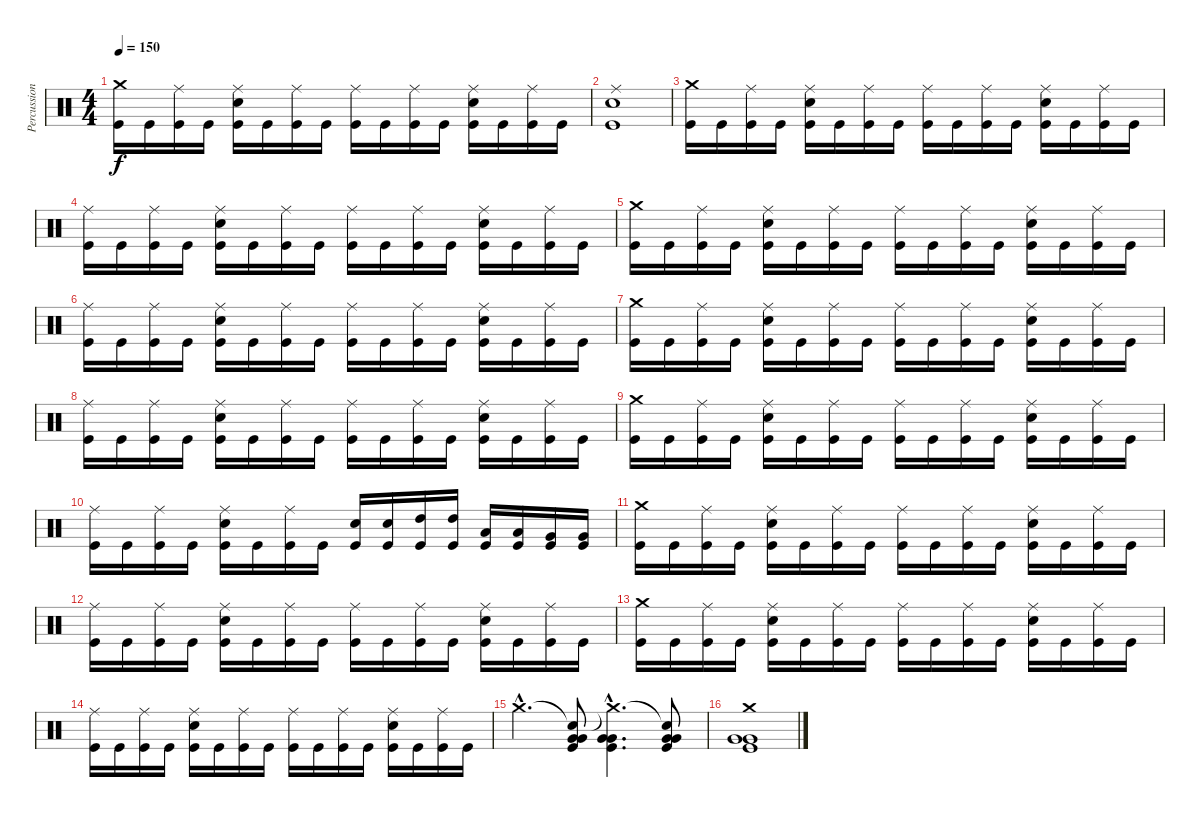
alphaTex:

\track ("Percussioni" "Percussion") {instrument percussion}
\staff {score}
\articulation defaults
\ts (4 4)
\tempo 150
\clef neutral
\ks c
("Crash medium (hit)" "Kick (hit)").16{dy f} "Kick (hit)".16 ("Ride (middle)" "Kick (hit)").16 "Kick (hit)".16 ("Ride (middle)" "Electric Snare (hit)" "Kick (hit)").16 "Kick (hit)".16 ("Ride (middle)" "Kick (hit)").16 "Kick (hit)".16 ("Ride (middle)" "Kick (hit)").16 "Kick (hit)".16 ("Ride (middle)" "Kick (hit)").16 "Kick (hit)".16 ("Ride (middle)" "Electric Snare (hit)" "Kick (hit)").16 "Kick (hit)".16 ("Ride (middle)" "Kick (hit)").16 "Kick (hit)".16 |
("Ride (middle)" "Electric Snare (hit)" "Kick (hit)").1 |
("Crash medium (hit)" "Kick (hit)").16 "Kick (hit)".16 ("Ride (middle)" "Kick (hit)").16 "Kick (hit)".16 ("Ride (middle)" "Electric Snare (hit)" "Kick (hit)").16 "Kick (hit)".16 ("Ride (middle)" "Kick (hit)").16 "Kick (hit)".16 ("Ride (middle)" "Kick (hit)").16 "Kick (hit)".16 ("Ride (middle)" "Kick (hit)").16 "Kick (hit)".16 ("Ride (middle)" "Electric Snare (hit)" "Kick (hit)").16 "Kick (hit)".16 ("Ride (middle)" "Kick (hit)").16 "Kick (hit)".16 |
("Ride (middle)" "Kick (hit)").16 "Kick (hit)".16 ("Ride (middle)" "Kick (hit)").16 "Kick (hit)".16 ("Ride (middle)" "Electric Snare (hit)" "Kick (hit)").16 "Kick (hit)".16 ("Ride (middle)" "Kick (hit)").16 "Kick (hit)".16 ("Ride (middle)" "Kick (hit)").16 "Kick (hit)".16 ("Ride (middle)" "Kick (hit)").16 "Kick (hit)".16 ("Ride (middle)" "Electric Snare (hit)" "Kick (hit)").16 "Kick (hit)".16 ("Ride (middle)" "Kick (hit)").16 "Kick (hit)".16 |
("Crash medium (hit)" "Kick (hit)").16 "Kick (hit)".16 ("Ride (middle)" "Kick (hit)").16 "Kick (hit)".16 ("Ride (middle)" "Electric Snare (hit)" "Kick (hit)").16 "Kick (hit)".16 ("Ride (middle)" "Kick (hit)").16 "Kick (hit)".16 ("Ride (middle)" "Kick (hit)").16 "Kick (hit)".16 ("Ride (middle)" "Kick (hit)").16 "Kick (hit)".16 ("Ride (middle)" "Electric Snare (hit)" "Kick (hit)").16 "Kick (hit)".16 ("Ride (middle)" "Kick (hit)").16 "Kick (hit)".16 |
("Ride (middle)" "Kick (hit)").16 "Kick (hit)".16 ("Ride (middle)" "Kick (hit)").16 "Kick (hit)".16 ("Ride (middle)" "Electric Snare (hit)" "Kick (hit)").16 "Kick (hit)".16 ("Ride (middle)" "Kick (hit)").16 "Kick (hit)".16 ("Ride (middle)" "Kick (hit)").16 "Kick (hit)".16 ("Ride (middle)" "Kick (hit)").16 "Kick (hit)".16 ("Ride (middle)" "Electric Snare (hit)" "Kick (hit)").16 "Kick (hit)".16 ("Ride (middle)" "Kick (hit)").16 "Kick (hit)".16 |
("Crash medium (hit)" "Kick (hit)").16 "Kick (hit)".16 ("Ride (middle)" "Kick (hit)").16 "Kick (hit)".16 ("Ride (middle)" "Electric Snare (hit)" "Kick (hit)").16 "Kick (hit)".16 ("Ride (middle)" "Kick (hit)").16 "Kick (hit)".16 ("Ride (middle)" "Kick (hit)").16 "Kick (hit)".16 ("Ride (middle)" "Kick (hit)").16 "Kick (hit)".16 ("Ride (middle)" "Electric Snare (hit)" "Kick (hit)").16 "Kick (hit)".16 ("Ride (middle)" "Kick (hit)").16 "Kick (hit)".16 |
("Ride (middle)" "Kick (hit)").16 "Kick (hit)".16 ("Ride (middle)" "Kick (hit)").16 "Kick (hit)".16 ("Ride (middle)" "Electric Snare (hit)" "Kick (hit)").16 "Kick (hit)".16 ("Ride (middle)" "Kick (hit)").16 "Kick (hit)".16 ("Ride (middle)" "Kick (hit)").16 "Kick (hit)".16 ("Ride (middle)" "Kick (hit)").16 "Kick (hit)".16 ("Ride (middle)" "Electric Snare (hit)" "Kick (hit)").16 "Kick (hit)".16 ("Ride (middle)" "Kick (hit)").16 "Kick (hit)".16 |
("Crash medium (hit)" "Kick (hit)").16 "Kick (hit)".16 ("Ride (middle)" "Kick (hit)").16 "Kick (hit)".16 ("Ride (middle)" "Electric Snare (hit)" "Kick (hit)").16 "Kick (hit)".16 ("Ride (middle)" "Kick (hit)").16 "Kick (hit)".16 ("Ride (middle)" "Kick (hit)").16 "Kick (hit)".16 ("Ride (middle)" "Kick (hit)").16 "Kick (hit)".16 ("Ride (middle)" "Electric Snare (hit)" "Kick (hit)").16 "Kick (hit)".16 ("Ride (middle)" "Kick (hit)").16 "Kick (hit)".16 |
("Ride (middle)" "Kick (hit)").16 "Kick (hit)".16 ("Ride (middle)" "Kick (hit)").16 "Kick (hit)".16 ("Ride (middle)" "Electric Snare (hit)" "Kick (hit)").16 "Kick (hit)".16 ("Ride (middle)" "Kick (hit)").16 "Kick (hit)".16 ("Electric Snare (hit)" "Kick (hit)").16 ("Electric Snare (hit)" "Kick (hit)").16 ("High Tom (hit)" "Kick (hit)").16 ("High Tom (hit)" "Kick (hit)").16 ("Low Tom (hit)" "Kick (hit)").16 ("Low Tom (hit)" "Kick (hit)").16 ("Very Low Tom (hit)" "Kick (hit)").16 ("Very Low Tom (hit)" "Kick (hit)").16 |
("Crash medium (hit)" "Kick (hit)").16 "Kick (hit)".16 ("Ride (middle)" "Kick (hit)").16 "Kick (hit)".16 ("Ride (middle)" "Electric Snare (hit)" "Kick (hit)").16 "Kick (hit)".16 ("Ride (middle)" "Kick (hit)").16 "Kick (hit)".16 ("Ride (middle)" "Kick (hit)").16 "Kick (hit)".16 ("Ride (middle)" "Kick (hit)").16 "Kick (hit)".16 ("Ride (middle)" "Electric Snare (hit)" "Kick (hit)").16 "Kick (hit)".16 ("Ride (middle)" "Kick (hit)").16 "Kick (hit)".16 |
("Ride (middle)" "Kick (hit)").16 "Kick (hit)".16 ("Ride (middle)" "Kick (hit)").16 "Kick (hit)".16 ("Ride (middle)" "Electric Snare (hit)" "Kick (hit)").16 "Kick (hit)".16 ("Ride (middle)" "Kick (hit)").16 "Kick (hit)".16 ("Ride (middle)" "Kick (hit)").16 "Kick (hit)".16 ("Ride (middle)" "Kick (hit)").16 "Kick (hit)".16 ("Ride (middle)" "Electric Snare (hit)" "Kick (hit)").16 "Kick (hit)".16 ("Ride (middle)" "Kick (hit)").16 "Kick (hit)".16 |
("Crash medium (hit)" "Kick (hit)").16 "Kick (hit)".16 ("Ride (middle)" "Kick (hit)").16 "Kick (hit)".16 ("Ride (middle)" "Electric Snare (hit)" "Kick (hit)").16 "Kick (hit)".16 ("Ride (middle)" "Kick (hit)").16 "Kick (hit)".16 ("Ride (middle)" "Kick (hit)").16 "Kick (hit)".16 ("Ride (middle)" "Kick (hit)").16 "Kick (hit)".16 ("Ride (middle)" "Electric Snare (hit)" "Kick (hit)").16 "Kick (hit)".16 ("Ride (middle)" "Kick (hit)").16 "Kick (hit)".16 |
("Ride (middle)" "Kick (hit)").16 "Kick (hit)".16 ("Ride (middle)" "Kick (hit)").16 "Kick (hit)".16 ("Ride (middle)" "Electric Snare (hit)" "Kick (hit)").16 "Kick (hit)".16 ("Ride (middle)" "Kick (hit)").16 "Kick (hit)".16 ("Ride (middle)" "Kick (hit)").16 "Kick (hit)".16 ("Ride (middle)" "Kick (hit)").16 "Kick (hit)".16 ("Ride (middle)" "Electric Snare (hit)" "Kick (hit)").16 "Kick (hit)".16 ("Ride (middle)" "Kick (hit)").16 "Kick (hit)".16 |
"Crash medium (hit)"{hac}.4{d} ("Snare (hit)"{t} "Very Low Tom (hit)" "Very Low Tom (hit)" "Kick (hit)").8 ("Crash medium (hit)"{hac t} "Very Low Tom (hit)"{hac} "Very Low Tom (hit)"{hac} "Kick (hit)"{hac}).4{d} ("Snare (hit)"{t} "Very Low Tom (hit)" "Very Low Tom (hit)" "Kick (hit)").8 |
("Crash medium (hit)" "Very Low Tom (hit)" "Very Low Tom (hit)" "Kick (hit)").1
